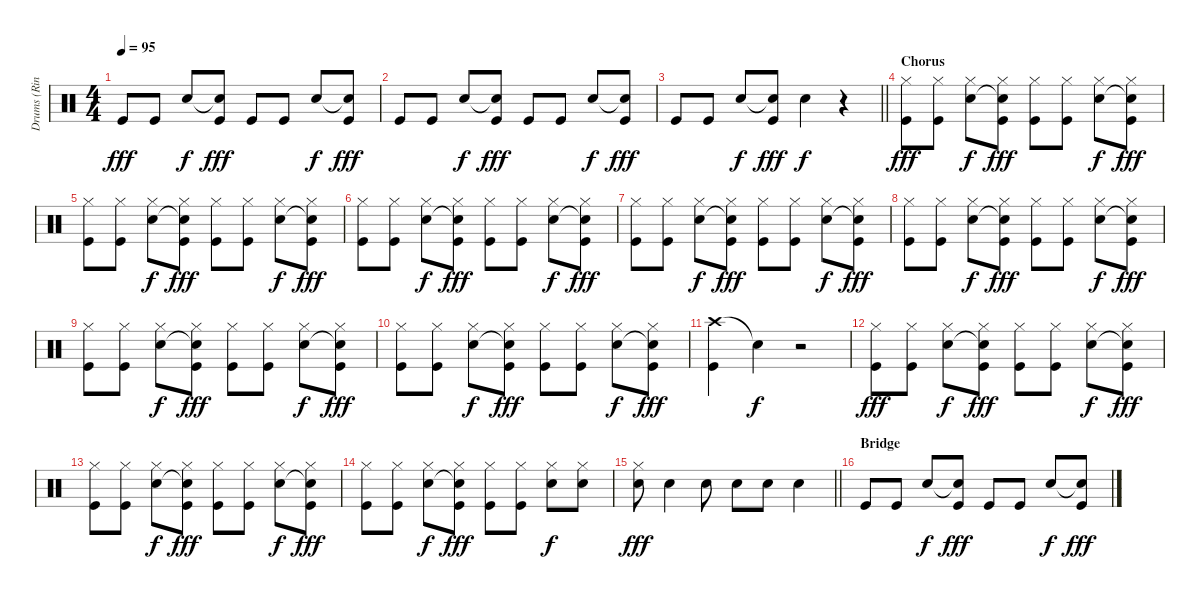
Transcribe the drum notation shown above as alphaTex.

\track ("Drums (Ringo Starr)" "Drums (Rin") {instrument percussion}
\staff {score}
\articulation defaults
\ts (4 4)
\tempo 95
\clef neutral
\ks c "Kick (hit)".8{dy fff} "Kick (hit)".8 "Electric Snare (hit)".8{dy f}
("Snare (hit)"{t} "Kick (hit)").8{dy fff} "Kick (hit)".8 "Kick (hit)".8 "Electric Snare (hit)".8{dy f} ("Snare (hit)"{t} "Kick (hit)").8{dy fff} |
"Kick (hit)".8 "Kick (hit)".8 "Electric Snare (hit)".8{dy f} ("Snare (hit)"{t} "Kick (hit)").8{dy fff} "Kick (hit)".8 "Kick (hit)".8 "Electric Snare (hit)".8{dy f} ("Snare (hit)"{t} "Kick (hit)").8{dy fff} |
\barLineRight lightlight "Kick (hit)".8 "Kick (hit)".8 "Electric Snare (hit)".8{dy f}
("Snare (hit)"{t} "Kick (hit)").8{dy fff} "Electric Snare (hit)".4{dy f} r.4 |
\section ("" "Chorus")
("Hi-Hat (closed)" "Kick (hit)").8{dy fff} ("Hi-Hat (closed)" "Kick (hit)").8 ("Hi-Hat (closed)" "Electric Snare (hit)").8{dy f} ("Hi-Hat (closed)" "Snare (hit)"{t} "Kick (hit)").8{dy fff} ("Hi-Hat (closed)" "Kick (hit)").8 ("Hi-Hat (closed)" "Kick (hit)").8 ("Hi-Hat (closed)" "Electric Snare (hit)").8{dy f} ("Hi-Hat (closed)" "Snare (hit)"{t} "Kick (hit)").8{dy fff} |
("Hi-Hat (closed)" "Kick (hit)").8 ("Hi-Hat (closed)" "Kick (hit)").8 ("Hi-Hat (closed)" "Electric Snare (hit)").8{dy f} ("Hi-Hat (closed)" "Snare (hit)"{t} "Kick (hit)").8{dy fff} ("Hi-Hat (closed)" "Kick (hit)").8 ("Hi-Hat (closed)" "Kick (hit)").8 ("Hi-Hat (closed)" "Electric Snare (hit)").8{dy f} ("Hi-Hat (closed)" "Snare (hit)"{t} "Kick (hit)").8{dy fff} |
("Hi-Hat (closed)" "Kick (hit)").8 ("Hi-Hat (closed)" "Kick (hit)").8 ("Hi-Hat (closed)" "Electric Snare (hit)").8{dy f} ("Hi-Hat (closed)" "Snare (hit)"{t} "Kick (hit)").8{dy fff} ("Hi-Hat (closed)" "Kick (hit)").8 ("Hi-Hat (closed)" "Kick (hit)").8 ("Hi-Hat (closed)" "Electric Snare (hit)").8{dy f} ("Hi-Hat (closed)" "Snare (hit)"{t} "Kick (hit)").8{dy fff} |
("Hi-Hat (closed)" "Kick (hit)").8 ("Hi-Hat (closed)" "Kick (hit)").8 ("Hi-Hat (closed)" "Electric Snare (hit)").8{dy f} ("Hi-Hat (closed)" "Snare (hit)"{t} "Kick (hit)").8{dy fff} ("Hi-Hat (closed)" "Kick (hit)").8 ("Hi-Hat (closed)" "Kick (hit)").8 ("Hi-Hat (closed)" "Electric Snare (hit)").8{dy f} ("Hi-Hat (closed)" "Snare (hit)"{t} "Kick (hit)").8{dy fff} |
("Hi-Hat (closed)" "Kick (hit)").8 ("Hi-Hat (closed)" "Kick (hit)").8 ("Hi-Hat (closed)" "Electric Snare (hit)").8{dy f} ("Hi-Hat (closed)" "Snare (hit)"{t} "Kick (hit)").8{dy fff} ("Hi-Hat (closed)" "Kick (hit)").8 ("Hi-Hat (closed)" "Kick (hit)").8 ("Hi-Hat (closed)" "Electric Snare (hit)").8{dy f} ("Hi-Hat (closed)" "Snare (hit)"{t} "Kick (hit)").8{dy fff} |
("Hi-Hat (closed)" "Kick (hit)").8 ("Hi-Hat (closed)" "Kick (hit)").8 ("Hi-Hat (closed)" "Electric Snare (hit)").8{dy f} ("Hi-Hat (closed)" "Snare (hit)"{t} "Kick (hit)").8{dy fff} ("Hi-Hat (closed)" "Kick (hit)").8 ("Hi-Hat (closed)" "Kick (hit)").8 ("Hi-Hat (closed)" "Electric Snare (hit)").8{dy f} ("Hi-Hat (closed)" "Snare (hit)"{t} "Kick (hit)").8{dy fff} |
("Hi-Hat (closed)" "Kick (hit)").8 ("Hi-Hat (closed)" "Kick (hit)").8 ("Hi-Hat (closed)" "Electric Snare (hit)").8{dy f} ("Hi-Hat (closed)" "Snare (hit)"{t} "Kick (hit)").8{dy fff} ("Hi-Hat (closed)" "Kick (hit)").8 ("Hi-Hat (closed)" "Kick (hit)").8 ("Hi-Hat (closed)" "Electric Snare (hit)").8{dy f} ("Hi-Hat (closed)" "Snare (hit)"{t} "Kick (hit)").8{dy fff} |
("Crash high (hit)" "Kick (hit)").4 "Snare (hit)"{t}.4{dy f} r.2 |
("Hi-Hat (closed)" "Kick (hit)").8{dy fff} ("Hi-Hat (closed)" "Kick (hit)").8 ("Hi-Hat (closed)" "Electric Snare (hit)").8{dy f} ("Hi-Hat (closed)" "Snare (hit)"{t} "Kick (hit)").8{dy fff} ("Hi-Hat (closed)" "Kick (hit)").8 ("Hi-Hat (closed)" "Kick (hit)").8 ("Hi-Hat (closed)" "Electric Snare (hit)").8{dy f} ("Hi-Hat (closed)" "Snare (hit)"{t} "Kick (hit)").8{dy fff} |
("Hi-Hat (closed)" "Kick (hit)").8 ("Hi-Hat (closed)" "Kick (hit)").8 ("Hi-Hat (closed)" "Electric Snare (hit)").8{dy f} ("Hi-Hat (closed)" "Snare (hit)"{t} "Kick (hit)").8{dy fff} ("Hi-Hat (closed)" "Kick (hit)").8 ("Hi-Hat (closed)" "Kick (hit)").8 ("Hi-Hat (closed)" "Electric Snare (hit)").8{dy f} ("Hi-Hat (closed)" "Snare (hit)"{t} "Kick (hit)").8{dy fff} |
("Hi-Hat (closed)" "Kick (hit)").8 ("Hi-Hat (closed)" "Kick (hit)").8 ("Hi-Hat (closed)" "Electric Snare (hit)").8{dy f} ("Hi-Hat (closed)" "Snare (hit)"{t} "Kick (hit)").8{dy fff} ("Hi-Hat (closed)" "Kick (hit)").8 ("Hi-Hat (closed)" "Kick (hit)").8 ("Hi-Hat (closed)" "Electric Snare (hit)").8{dy f} ("Hi-Hat (closed)" "Electric Snare (hit)").8 |
\barLineRight lightlight
("Hi-Hat (closed)" "Electric Snare (hit)").8{dy fff} "Electric Snare (hit)".4 "Electric Snare (hit)".8 "Electric Snare (hit)".8 "Electric Snare (hit)".8 "Electric Snare (hit)".4 |
\section ("" "Bridge")
"Kick (hit)".8 "Kick (hit)".8 "Electric Snare (hit)".8{dy f} ("Snare (hit)"{t} "Kick (hit)").8{dy fff} "Kick (hit)".8 "Kick (hit)".8 "Electric Snare (hit)".8{dy f} ("Snare (hit)"{t} "Kick (hit)").8{dy fff}
